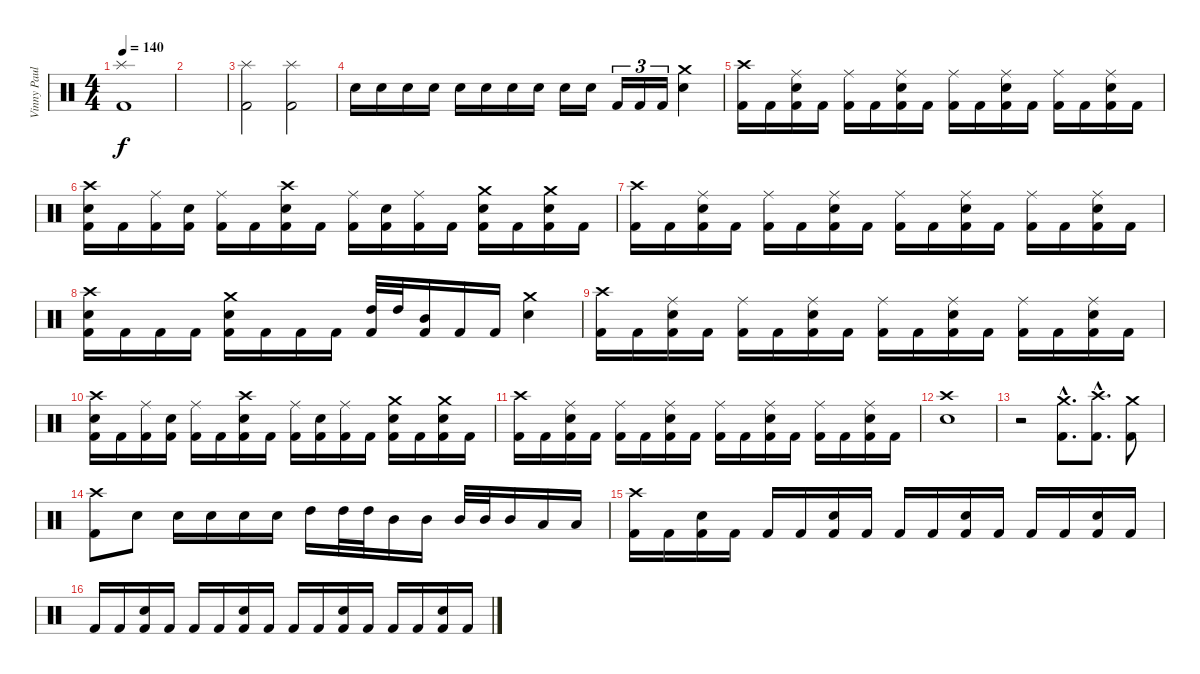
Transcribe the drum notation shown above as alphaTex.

\track ("Vinny Paul" "Vinny Paul") {instrument percussion}
\staff {score}
\articulation defaults
\ts (4 4)
\tempo 140
\clef neutral
\ks c
("Splash (hit)" "Kick (hit) 2").1{dy f} |
|
("Splash (hit)" "Kick (hit) 2").2 ("Splash (hit)" "Kick (hit) 2").2 |
"Snare (hit) 2".16 "Snare (hit) 2".16 "Snare (hit) 2".16 "Snare (hit) 2".16 "Snare (hit) 2".16 "Snare (hit) 2".16 "Snare (hit) 2".16 "Snare (hit) 2".16 "Snare (hit) 2".16 "Snare (hit) 2".16 "Kick (hit) 2".16{tu (3 2)} "Kick (hit) 2".16{tu (3 2)} "Kick (hit) 2".16{tu (3 2)} ("Crash medium (hit)" "Snare (hit) 2").4 |
("Crash high (hit)" "Kick (hit) 2").16 "Kick (hit) 2".16 ("Ride (middle)" "Snare (hit) 2" "Kick (hit) 2").16 "Kick (hit) 2".16 ("Ride (middle)" "Kick (hit) 2").16 "Kick (hit) 2".16 ("Ride (middle)" "Snare (hit) 2" "Kick (hit) 2").16 "Kick (hit) 2".16 ("Ride (middle)" "Kick (hit) 2").16 "Kick (hit) 2".16 ("Ride (middle)" "Snare (hit) 2" "Kick (hit) 2").16 "Kick (hit) 2".16 ("Ride (middle)" "Kick (hit) 2").16 "Kick (hit) 2".16 ("Ride (middle)" "Snare (hit) 2" "Kick (hit) 2").16 "Kick (hit) 2".16 |
("Crash high (hit)" "Snare (hit) 2" "Kick (hit) 2").16 "Kick (hit) 2".16 ("Ride (middle)" "Kick (hit) 2").16 ("Snare (hit) 2" "Kick (hit) 2").16 ("Ride (middle)" "Kick (hit) 2").16 "Kick (hit) 2".16 ("Crash high (hit)" "Snare (hit) 2" "Kick (hit) 2").16 "Kick (hit) 2".16 ("Ride (middle)" "Kick (hit) 2").16 ("Snare (hit) 2" "Kick (hit) 2").16 ("Ride (middle)" "Kick (hit) 2").16 "Kick (hit) 2".16 ("Crash medium (hit)" "Snare (hit) 2" "Kick (hit) 2").16 "Kick (hit) 2".16 ("Crash medium (hit)" "Snare (hit) 2" "Kick (hit) 2").16 "Kick (hit) 2".16 |
("Crash high (hit)" "Kick (hit) 2").16 "Kick (hit) 2".16 ("Ride (middle)" "Snare (hit) 2" "Kick (hit) 2").16 "Kick (hit) 2".16 ("Ride (middle)" "Kick (hit) 2").16 "Kick (hit) 2".16 ("Ride (middle)" "Snare (hit) 2" "Kick (hit) 2").16 "Kick (hit) 2".16 ("Ride (middle)" "Kick (hit) 2").16 "Kick (hit) 2".16 ("Ride (middle)" "Snare (hit) 2" "Kick (hit) 2").16 "Kick (hit) 2".16 ("Ride (middle)" "Kick (hit) 2").16 "Kick (hit) 2".16 ("Ride (middle)" "Snare (hit) 2" "Kick (hit) 2").16 "Kick (hit) 2".16 |
("Crash high (hit)" "Snare (hit) 2" "Kick (hit) 2").16 "Kick (hit) 2".16 "Kick (hit) 2".16 "Kick (hit) 2".16 ("Crash medium (hit)" "Snare (hit) 2" "Kick (hit) 2").16 "Kick (hit) 2".16 "Kick (hit) 2".16 "Kick (hit) 2".16 ("High Tom (hit)" "Kick (hit) 2").32 "High Tom (hit)".32 ("Mid Tom (hit)" "Kick (hit) 2").16 "Kick (hit) 2".16 "Kick (hit) 2".16 ("Crash medium (hit)" "Snare (hit) 2").4 |
("Crash high (hit)" "Kick (hit) 2").16 "Kick (hit) 2".16 ("Ride (middle)" "Snare (hit) 2" "Kick (hit) 2").16 "Kick (hit) 2".16 ("Ride (middle)" "Kick (hit) 2").16 "Kick (hit) 2".16 ("Ride (middle)" "Snare (hit) 2" "Kick (hit) 2").16 "Kick (hit) 2".16 ("Ride (middle)" "Kick (hit) 2").16 "Kick (hit) 2".16 ("Ride (middle)" "Snare (hit) 2" "Kick (hit) 2").16 "Kick (hit) 2".16 ("Ride (middle)" "Kick (hit) 2").16 "Kick (hit) 2".16 ("Ride (middle)" "Snare (hit) 2" "Kick (hit) 2").16 "Kick (hit) 2".16 |
("Crash high (hit)" "Snare (hit) 2" "Kick (hit) 2").16 "Kick (hit) 2".16 ("Ride (middle)" "Kick (hit) 2").16 ("Snare (hit) 2" "Kick (hit) 2").16 ("Ride (middle)" "Kick (hit) 2").16 "Kick (hit) 2".16 ("Crash high (hit)" "Snare (hit) 2" "Kick (hit) 2").16 "Kick (hit) 2".16 ("Ride (middle)" "Kick (hit) 2").16 ("Snare (hit) 2" "Kick (hit) 2").16 ("Ride (middle)" "Kick (hit) 2").16 "Kick (hit) 2".16 ("Crash medium (hit)" "Snare (hit) 2" "Kick (hit) 2").16 "Kick (hit) 2".16 ("Crash medium (hit)" "Snare (hit) 2" "Kick (hit) 2").16 "Kick (hit) 2".16 |
("Crash high (hit)" "Kick (hit) 2").16 "Kick (hit) 2".16 ("Ride (middle)" "Snare (hit) 2" "Kick (hit) 2").16 "Kick (hit) 2".16 ("Ride (middle)" "Kick (hit) 2").16 "Kick (hit) 2".16 ("Ride (middle)" "Snare (hit) 2" "Kick (hit) 2").16 "Kick (hit) 2".16 ("Ride (middle)" "Kick (hit) 2").16 "Kick (hit) 2".16 ("Ride (middle)" "Snare (hit) 2" "Kick (hit) 2").16 "Kick (hit) 2".16 ("Ride (middle)" "Kick (hit) 2").16 "Kick (hit) 2".16 ("Ride (middle)" "Snare (hit) 2" "Kick (hit) 2").16 "Kick (hit) 2".16 |
("Crash high (hit)" "Snare (hit) 2").1 |
r.2 ("Crash medium (hit)"{hac} "Kick (hit) 2"{hac}).8{d} ("Crash high (hit)"{hac} "Kick (hit) 2"{hac}).8{d} ("Crash medium (hit)" "Kick (hit) 2").8 |
("Crash high (hit)" "Kick (hit) 2").8 "Snare (hit) 2".8 "Snare (hit) 2".16 "Snare (hit) 2".16 "Snare (hit) 2".16 "Snare (hit) 2".16 "High Tom (hit)".16 "High Tom (hit)".32 "High Tom (hit)".32 "Mid Tom (hit)".16 "Mid Tom (hit)".16 "Mid Tom (hit)".32 "Mid Tom (hit)".32 "Mid Tom (hit)".16 "Low Tom (hit)".16 "Low Tom (hit)".16 |
("Crash high (hit)" "Kick (hit) 2").16 "Kick (hit) 2".16 ("Snare (hit) 2" "Kick (hit) 2").16 "Kick (hit) 2".16 "Kick (hit) 2".16 "Kick (hit) 2".16 ("Snare (hit) 2" "Kick (hit) 2").16 "Kick (hit) 2".16 "Kick (hit) 2".16 "Kick (hit) 2".16 ("Snare (hit) 2" "Kick (hit) 2").16 "Kick (hit) 2".16 "Kick (hit) 2".16 "Kick (hit) 2".16 ("Snare (hit) 2" "Kick (hit) 2").16 "Kick (hit) 2".16 |
"Kick (hit) 2".16 "Kick (hit) 2".16 ("Snare (hit) 2" "Kick (hit) 2").16 "Kick (hit) 2".16 "Kick (hit) 2".16 "Kick (hit) 2".16 ("Snare (hit) 2" "Kick (hit) 2").16 "Kick (hit) 2".16 "Kick (hit) 2".16 "Kick (hit) 2".16 ("Snare (hit) 2" "Kick (hit) 2").16 "Kick (hit) 2".16 "Kick (hit) 2".16 "Kick (hit) 2".16 ("Snare (hit) 2" "Kick (hit) 2").16 "Kick (hit) 2".16
